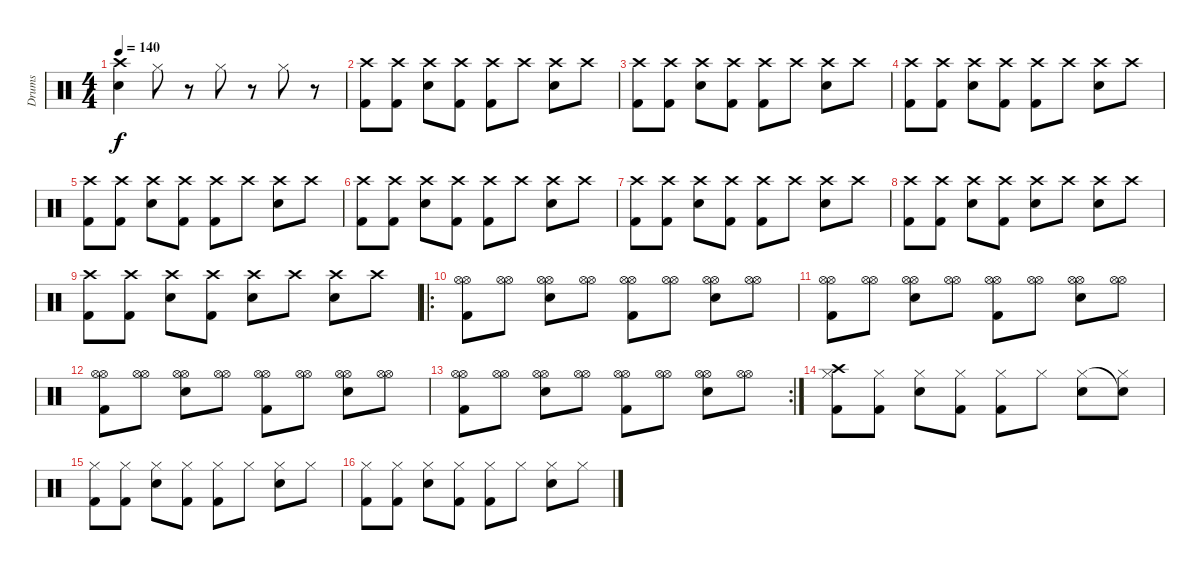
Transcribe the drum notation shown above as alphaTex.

\track ("Drums" "Drums") {instrument percussion}
\staff {score}
\articulation defaults
\ts (4 4)
\tempo 140
\clef neutral
\ks c
("Crash high (hit)" "Electric Snare (hit)").4{dy f} "Hi-Hat (closed)".8 r.8 "Hi-Hat (closed)".8 r.8 "Hi-Hat (closed)".8 r.8 |
("Crash high (hit)" "Kick (hit) 2").8 ("Crash high (hit)" "Kick (hit) 2").8 ("Crash high (hit)" "Electric Snare (hit)").8 ("Crash high (hit)" "Kick (hit) 2").8 ("Crash high (hit)" "Kick (hit) 2").8 "Crash high (hit)".8 ("Crash high (hit)" "Electric Snare (hit)").8 "Crash high (hit)".8 |
("Crash high (hit)" "Kick (hit) 2").8 ("Crash high (hit)" "Kick (hit) 2").8 ("Crash high (hit)" "Electric Snare (hit)").8 ("Crash high (hit)" "Kick (hit) 2").8 ("Crash high (hit)" "Kick (hit) 2").8 "Crash high (hit)".8 ("Crash high (hit)" "Electric Snare (hit)").8 "Crash high (hit)".8 |
("Crash high (hit)" "Kick (hit) 2").8 ("Crash high (hit)" "Kick (hit) 2").8 ("Crash high (hit)" "Electric Snare (hit)").8 ("Crash high (hit)" "Kick (hit) 2").8 ("Crash high (hit)" "Kick (hit) 2").8 "Crash high (hit)".8 ("Crash high (hit)" "Electric Snare (hit)").8 "Crash high (hit)".8 |
("Crash high (hit)" "Kick (hit) 2").8 ("Crash high (hit)" "Kick (hit) 2").8 ("Crash high (hit)" "Electric Snare (hit)").8 ("Crash high (hit)" "Kick (hit) 2").8 ("Crash high (hit)" "Kick (hit) 2").8 "Crash high (hit)".8 ("Crash high (hit)" "Electric Snare (hit)").8 "Crash high (hit)".8 |
("Crash high (hit)" "Kick (hit) 2").8 ("Crash high (hit)" "Kick (hit) 2").8 ("Crash high (hit)" "Electric Snare (hit)").8 ("Crash high (hit)" "Kick (hit) 2").8 ("Crash high (hit)" "Kick (hit) 2").8 "Crash high (hit)".8 ("Crash high (hit)" "Electric Snare (hit)").8 "Crash high (hit)".8 |
("Crash high (hit)" "Kick (hit) 2").8 ("Crash high (hit)" "Kick (hit) 2").8 ("Crash high (hit)" "Electric Snare (hit)").8 ("Crash high (hit)" "Kick (hit) 2").8 ("Crash high (hit)" "Kick (hit) 2").8 "Crash high (hit)".8 ("Crash high (hit)" "Electric Snare (hit)").8 "Crash high (hit)".8 |
("Crash high (hit)" "Kick (hit) 2").8 ("Crash high (hit)" "Kick (hit) 2").8 ("Crash high (hit)" "Electric Snare (hit)").8 ("Crash high (hit)" "Kick (hit) 2").8 ("Crash high (hit)" "Electric Snare (hit)").8 "Crash high (hit)".8 ("Crash high (hit)" "Electric Snare (hit)").8 "Crash high (hit)".8 |
("Crash high (hit)" "Kick (hit) 2").8 ("Crash high (hit)" "Kick (hit) 2").8 ("Crash high (hit)" "Electric Snare (hit)").8 ("Crash high (hit)" "Kick (hit) 2").8 ("Crash high (hit)" "Electric Snare (hit)").8 "Crash high (hit)".8 ("Crash high (hit)" "Electric Snare (hit)").8 "Crash high (hit)".8 |
\ro
("Hi-Hat (open)" "Hi-Hat (open)" "Kick (hit) 2").8 ("Hi-Hat (open)" "Hi-Hat (open)").8 ("Hi-Hat (open)" "Hi-Hat (open)" "Electric Snare (hit)").8 ("Hi-Hat (open)" "Hi-Hat (open)").8 ("Hi-Hat (open)" "Hi-Hat (open)" "Kick (hit) 2").8 ("Hi-Hat (open)" "Hi-Hat (open)").8 ("Hi-Hat (open)" "Hi-Hat (open)" "Electric Snare (hit)").8 ("Hi-Hat (open)" "Hi-Hat (open)").8 |
("Hi-Hat (open)" "Hi-Hat (open)" "Kick (hit) 2").8 ("Hi-Hat (open)" "Hi-Hat (open)").8 ("Hi-Hat (open)" "Hi-Hat (open)" "Electric Snare (hit)").8 ("Hi-Hat (open)" "Hi-Hat (open)").8 ("Hi-Hat (open)" "Hi-Hat (open)" "Kick (hit) 2").8 ("Hi-Hat (open)" "Hi-Hat (open)").8 ("Hi-Hat (open)" "Hi-Hat (open)" "Electric Snare (hit)").8 ("Hi-Hat (open)" "Hi-Hat (open)").8 |
("Hi-Hat (open)" "Hi-Hat (open)" "Kick (hit) 2").8 ("Hi-Hat (open)" "Hi-Hat (open)").8 ("Hi-Hat (open)" "Hi-Hat (open)" "Electric Snare (hit)").8 ("Hi-Hat (open)" "Hi-Hat (open)").8 ("Hi-Hat (open)" "Hi-Hat (open)" "Kick (hit) 2").8 ("Hi-Hat (open)" "Hi-Hat (open)").8 ("Hi-Hat (open)" "Hi-Hat (open)" "Electric Snare (hit)").8 ("Hi-Hat (open)" "Hi-Hat (open)").8 |
\rc 2
("Hi-Hat (open)" "Hi-Hat (open)" "Kick (hit) 2").8 ("Hi-Hat (open)" "Hi-Hat (open)").8 ("Hi-Hat (open)" "Hi-Hat (open)" "Electric Snare (hit)").8 ("Hi-Hat (open)" "Hi-Hat (open)").8 ("Hi-Hat (open)" "Hi-Hat (open)" "Kick (hit) 2").8 ("Hi-Hat (open)" "Hi-Hat (open)").8 ("Hi-Hat (open)" "Hi-Hat (open)" "Electric Snare (hit)").8 ("Hi-Hat (open)" "Hi-Hat (open)").8 |
("Crash high (hit)" "Hi-Hat (closed)" "Kick (hit) 2").8 ("Hi-Hat (closed)" "Kick (hit) 2").8 ("Hi-Hat (closed)" "Electric Snare (hit)").8 ("Hi-Hat (closed)" "Kick (hit) 2").8 ("Hi-Hat (closed)" "Kick (hit) 2").8 "Hi-Hat (closed)".8 ("Hi-Hat (closed)" "Electric Snare (hit)").8 ("Snare (hit)"{t} "Hi-Hat (closed)").8 |
("Hi-Hat (closed)" "Kick (hit) 2").8 ("Hi-Hat (closed)" "Kick (hit) 2").8 ("Hi-Hat (closed)" "Electric Snare (hit)").8 ("Hi-Hat (closed)" "Kick (hit) 2").8 ("Hi-Hat (closed)" "Kick (hit) 2").8 "Hi-Hat (closed)".8 ("Hi-Hat (closed)" "Electric Snare (hit)").8 "Hi-Hat (closed)".8 |
("Hi-Hat (closed)" "Kick (hit) 2").8 ("Hi-Hat (closed)" "Kick (hit) 2").8 ("Hi-Hat (closed)" "Electric Snare (hit)").8 ("Hi-Hat (closed)" "Kick (hit) 2").8 ("Hi-Hat (closed)" "Kick (hit) 2").8 "Hi-Hat (closed)".8 ("Hi-Hat (closed)" "Electric Snare (hit)").8 "Hi-Hat (closed)".8
